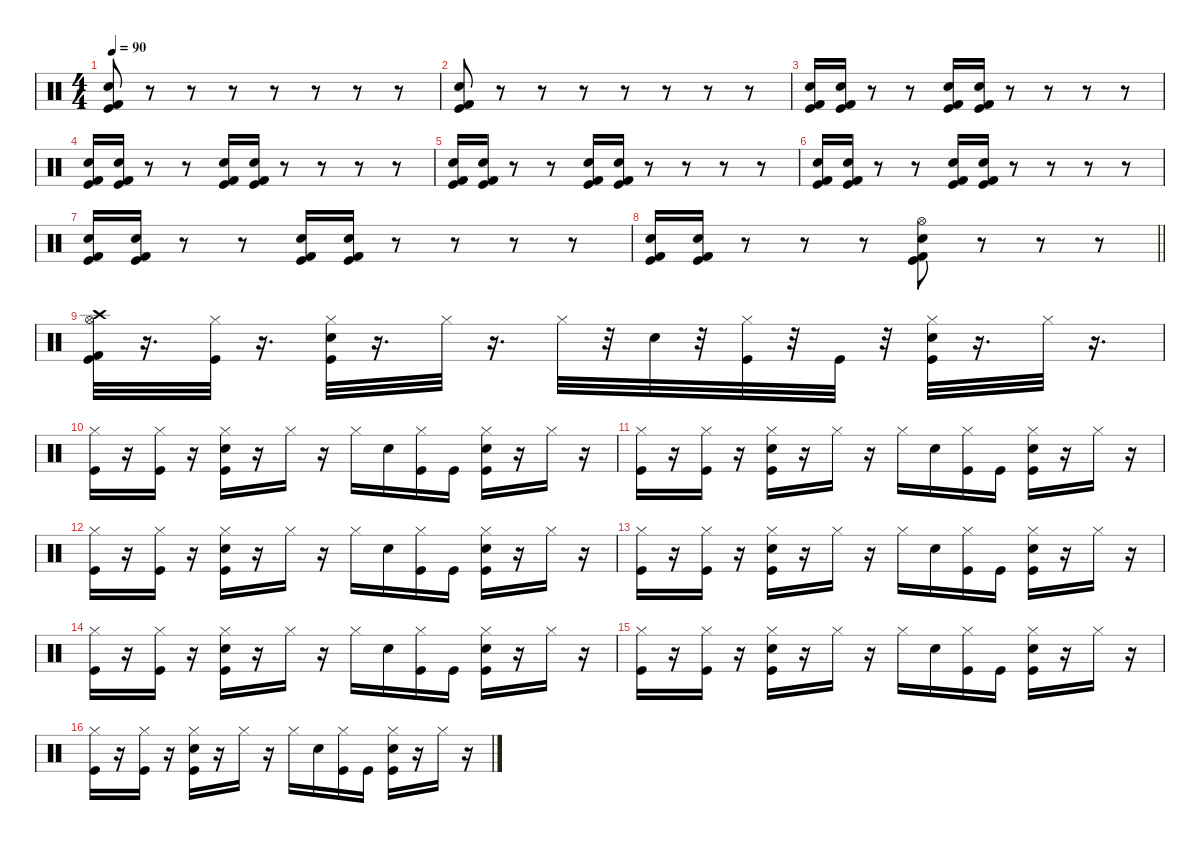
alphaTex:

\defaultSystemsLayout 4
\hideDynamics
\bracketExtendMode nobrackets
\singleTrackTrackNamePolicy hidden
\multiTrackTrackNamePolicy hidden
\otherSystemsTrackNameOrientation horizontal
\track ("Slagverk" "drm.") {instrument percussion}
\staff {score}
\articulation defaults
\ts (4 4)
\tempo 90
\clef neutral
\ks c
("Snare (hit) 2" "Kick (hit) 2" "Kick (hit)").8{dy f beam Up} r.8{beam Up} r.8{beam Up} r.8{beam Up} r.8{beam Up} r.8{beam Up} r.8{beam Up} r.8{beam Up} |
("Snare (hit) 2" "Kick (hit)" "Kick (hit) 2").8{beam Up} r.8{beam Up} r.8{beam Up} r.8{beam Up} r.8{beam Up} r.8{beam Up} r.8{beam Up} r.8{beam Up} |
("Snare (hit) 2" "Kick (hit)" "Kick (hit) 2").16{beam Up} ("Snare (hit) 2" "Kick (hit)" "Kick (hit) 2").16{beam Up} r.8{beam Up} r.8{beam Up} ("Snare (hit) 2" "Kick (hit)" "Kick (hit) 2").16{beam Up} ("Snare (hit) 2" "Kick (hit)" "Kick (hit) 2").16{beam Up} r.8{beam Up} r.8{beam Up} r.8{beam Up} r.8{beam Up} |
("Snare (hit) 2" "Kick (hit)" "Kick (hit) 2").16{beam Up} ("Snare (hit) 2" "Kick (hit)" "Kick (hit) 2").16{beam Up} r.8{beam Up} r.8{beam Up} ("Snare (hit) 2" "Kick (hit)" "Kick (hit) 2").16{beam Up} ("Snare (hit) 2" "Kick (hit)" "Kick (hit) 2").16{beam Up} r.8{beam Up} r.8{beam Up} r.8{beam Up} r.8{beam Up} |
("Snare (hit) 2" "Kick (hit)" "Kick (hit) 2").16{beam Up} ("Snare (hit) 2" "Kick (hit)" "Kick (hit) 2").16{beam Up} r.8{beam Up} r.8{beam Up} ("Snare (hit) 2" "Kick (hit)" "Kick (hit) 2").16{beam Up} ("Snare (hit) 2" "Kick (hit)" "Kick (hit) 2").16{beam Up} r.8{beam Up} r.8{beam Up} r.8{beam Up} r.8{beam Up} |
("Snare (hit) 2" "Kick (hit)" "Kick (hit) 2").16{beam Up} ("Snare (hit) 2" "Kick (hit)" "Kick (hit) 2").16{beam Up} r.8{beam Up} r.8{beam Up} ("Snare (hit) 2" "Kick (hit)" "Kick (hit) 2").16{beam Up} ("Snare (hit) 2" "Kick (hit)" "Kick (hit) 2").16{beam Up} r.8{beam Up} r.8{beam Up} r.8{beam Up} r.8{beam Up} |
("Snare (hit) 2" "Kick (hit)" "Kick (hit) 2").16{beam Up} ("Snare (hit) 2" "Kick (hit)" "Kick (hit) 2").16{beam Up} r.8{beam Up} r.8{beam Up} ("Snare (hit) 2" "Kick (hit)" "Kick (hit) 2").16{beam Up} ("Snare (hit) 2" "Kick (hit)" "Kick (hit) 2").16{beam Up} r.8{beam Up} r.8{beam Up} r.8{beam Up} r.8{beam Up} |
\barLineRight lightlight
("Snare (hit) 2" "Kick (hit)" "Kick (hit) 2").16{beam Up} ("Snare (hit) 2" "Kick (hit)" "Kick (hit) 2").16{beam Up} r.8{beam Up} r.8{beam Up} r.8{beam Up} ("Hi-Hat (open)" "Kick (hit)" "Snare (hit) 2" "Kick (hit) 2").8{beam Down} r.8{beam Down} r.8{beam Down} r.8{beam Down} |
("Kick (hit)" "Hi-Hat (open)" "Crash high (hit)" "Kick (hit) 2").32{dy fff beam Down} r.16{d beam Down} ("Kick (hit)" "Hi-Hat (closed)").32{beam Down} r.16{d beam Down} ("Snare (hit) 2" "Kick (hit)" "Hi-Hat (closed)").32{beam Down} r.16{d beam Down} "Hi-Hat (closed)".32{beam Down} r.16{d beam Down} "Hi-Hat (closed)".32{dy f beam Down} r.32{beam Down} "Snare (hit) 2".32{beam Down} r.32{beam Down} ("Hi-Hat (closed)" "Kick (hit)").32{beam Down} r.32{beam Down} "Kick (hit)".32{beam Down} r.32{beam Down} ("Hi-Hat (closed)" "Snare (hit) 2" "Kick (hit)").32{beam Down} r.16{d beam Down} "Hi-Hat (closed)".32{beam Down} r.16{d beam Down} |
("Kick (hit)" "Hi-Hat (closed)").16{beam Down} r.16{beam Down} ("Kick (hit)" "Hi-Hat (closed)").16{beam Down} r.16{beam Down} ("Kick (hit)" "Hi-Hat (closed)" "Snare (hit) 2").16{beam Down} r.16{beam Down} "Hi-Hat (closed)".16{beam Down} r.16{beam Down} "Hi-Hat (closed)".16{beam Down} "Snare (hit) 2".16{beam Down} ("Kick (hit)" "Hi-Hat (closed)").16{beam Down} "Kick (hit)".16{beam Down} ("Kick (hit)" "Hi-Hat (closed)" "Snare (hit) 2").16{beam Down} r.16{beam Down} "Hi-Hat (closed)".16{beam Down} r.16{beam Down} |
("Kick (hit)" "Hi-Hat (closed)").16{beam Down} r.16{beam Down} ("Kick (hit)" "Hi-Hat (closed)").16{beam Down} r.16{beam Down} ("Kick (hit)" "Hi-Hat (closed)" "Snare (hit) 2").16{beam Down} r.16{beam Down} "Hi-Hat (closed)".16{beam Down} r.16{beam Down} "Hi-Hat (closed)".16{beam Down} "Snare (hit) 2".16{beam Down} ("Kick (hit)" "Hi-Hat (closed)").16{beam Down} "Kick (hit)".16{beam Down} ("Kick (hit)" "Hi-Hat (closed)" "Snare (hit) 2").16{beam Down} r.16{beam Down} "Hi-Hat (closed)".16{beam Down} r.16{beam Down} |
("Kick (hit)" "Hi-Hat (closed)").16{beam Down} r.16{beam Down} ("Kick (hit)" "Hi-Hat (closed)").16{beam Down} r.16{beam Down} ("Kick (hit)" "Hi-Hat (closed)" "Snare (hit) 2").16{beam Down} r.16{beam Down} "Hi-Hat (closed)".16{beam Down} r.16{beam Down} "Hi-Hat (closed)".16{beam Down} "Snare (hit) 2".16{beam Down} ("Kick (hit)" "Hi-Hat (closed)").16{beam Down} "Kick (hit)".16{beam Down} ("Kick (hit)" "Hi-Hat (closed)" "Snare (hit) 2").16{beam Down} r.16{beam Down} "Hi-Hat (closed)".16{beam Down} r.16{beam Down} |
("Kick (hit)" "Hi-Hat (closed)").16{beam Down} r.16{beam Down} ("Kick (hit)" "Hi-Hat (closed)").16{beam Down} r.16{beam Down} ("Kick (hit)" "Hi-Hat (closed)" "Snare (hit) 2").16{beam Down} r.16{beam Down} "Hi-Hat (closed)".16{beam Down} r.16{beam Down} "Hi-Hat (closed)".16{beam Down} "Snare (hit) 2".16{beam Down} ("Kick (hit)" "Hi-Hat (closed)").16{beam Down} "Kick (hit)".16{beam Down} ("Kick (hit)" "Hi-Hat (closed)" "Snare (hit) 2").16{beam Down} r.16{beam Down} "Hi-Hat (closed)".16{beam Down} r.16{beam Down} |
("Kick (hit)" "Hi-Hat (closed)").16{beam Down} r.16{beam Down} ("Kick (hit)" "Hi-Hat (closed)").16{beam Down} r.16{beam Down} ("Kick (hit)" "Hi-Hat (closed)" "Snare (hit) 2").16{beam Down} r.16{beam Down} "Hi-Hat (closed)".16{beam Down} r.16{beam Down} "Hi-Hat (closed)".16{beam Down} "Snare (hit) 2".16{beam Down} ("Kick (hit)" "Hi-Hat (closed)").16{beam Down} "Kick (hit)".16{beam Down} ("Kick (hit)" "Hi-Hat (closed)" "Snare (hit) 2").16{beam Down} r.16{beam Down} "Hi-Hat (closed)".16{beam Down} r.16{beam Down} |
("Kick (hit)" "Hi-Hat (closed)").16{beam Down} r.16{beam Down} ("Kick (hit)" "Hi-Hat (closed)").16{beam Down} r.16{beam Down} ("Kick (hit)" "Hi-Hat (closed)" "Snare (hit) 2").16{beam Down} r.16{beam Down} "Hi-Hat (closed)".16{beam Down} r.16{beam Down} "Hi-Hat (closed)".16{beam Down} "Snare (hit) 2".16{beam Down} ("Kick (hit)" "Hi-Hat (closed)").16{beam Down} "Kick (hit)".16{beam Down} ("Kick (hit)" "Hi-Hat (closed)" "Snare (hit) 2").16{beam Down} r.16{beam Down} "Hi-Hat (closed)".16{beam Down} r.16{beam Down} |
("Kick (hit)" "Hi-Hat (closed)").16{beam Down} r.16{beam Down} ("Kick (hit)" "Hi-Hat (closed)").16{beam Down} r.16{beam Down} ("Kick (hit)" "Hi-Hat (closed)" "Snare (hit) 2").16{beam Down} r.16{beam Down} "Hi-Hat (closed)".16{beam Down} r.16{beam Down} "Hi-Hat (closed)".16{beam Down} "Snare (hit) 2".16{beam Down} ("Kick (hit)" "Hi-Hat (closed)").16{beam Down} "Kick (hit)".16{beam Down} ("Kick (hit)" "Hi-Hat (closed)" "Snare (hit) 2").16{beam Down} r.16{beam Down} "Hi-Hat (closed)".16{beam Down} r.16{beam Down}
